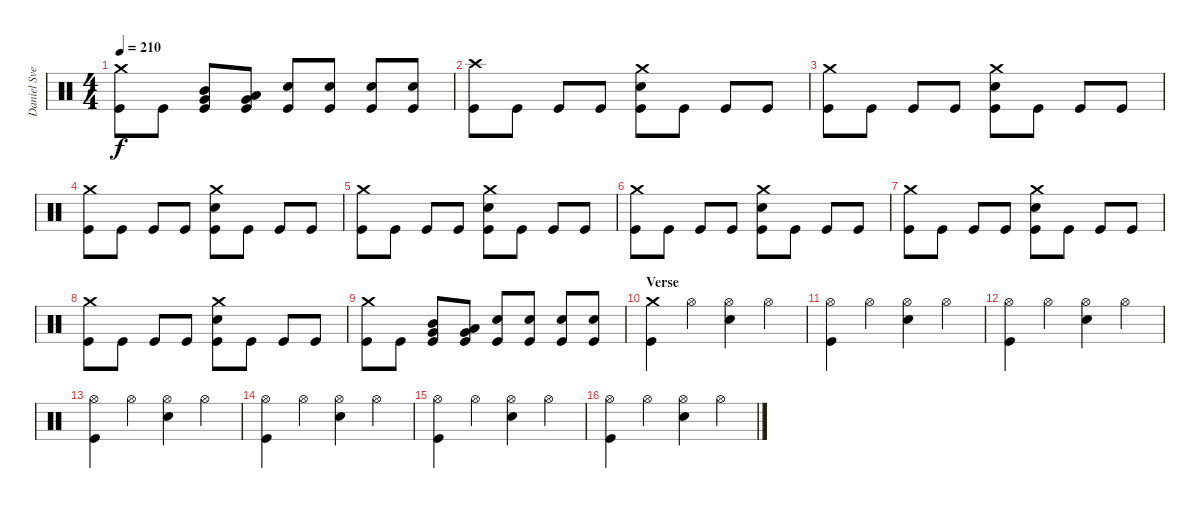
\track ("Daniel Svensson" "Daniel Sve") {instrument percussion}
\staff {score}
\articulation defaults
\ts (4 4)
\tempo 210
\clef neutral
\ks c
("Crash medium (hit)" "Kick (hit)").8{dy f} "Kick (hit)".8 ("Very Low Tom (hit)" "Mid Tom (hit)" "Kick (hit)").8 ("Very Low Tom (hit)" "Low Tom (hit)" "Kick (hit)").8 ("Electric Snare (hit)" "Kick (hit)").8 ("Electric Snare (hit)" "Kick (hit)").8 ("Electric Snare (hit)" "Kick (hit)").8 ("Electric Snare (hit)" "Kick (hit)").8 |
("Crash high (hit)" "Kick (hit)").8 "Kick (hit)".8 "Kick (hit)".8 "Kick (hit)".8 ("Crash medium (hit)" "Electric Snare (hit)" "Kick (hit)").8 "Kick (hit)".8 "Kick (hit)".8 "Kick (hit)".8 |
("Crash medium (hit)" "Kick (hit)").8 "Kick (hit)".8 "Kick (hit)".8 "Kick (hit)".8 ("Crash medium (hit)" "Electric Snare (hit)" "Kick (hit)").8 "Kick (hit)".8 "Kick (hit)".8 "Kick (hit)".8 |
("Crash medium (hit)" "Kick (hit)").8 "Kick (hit)".8 "Kick (hit)".8 "Kick (hit)".8 ("Crash medium (hit)" "Electric Snare (hit)" "Kick (hit)").8 "Kick (hit)".8 "Kick (hit)".8 "Kick (hit)".8 |
("Crash medium (hit)" "Kick (hit)").8 "Kick (hit)".8 "Kick (hit)".8 "Kick (hit)".8 ("Crash medium (hit)" "Electric Snare (hit)" "Kick (hit)").8 "Kick (hit)".8 "Kick (hit)".8 "Kick (hit)".8 |
("Crash medium (hit)" "Kick (hit)").8 "Kick (hit)".8 "Kick (hit)".8 "Kick (hit)".8 ("Crash medium (hit)" "Electric Snare (hit)" "Kick (hit)").8 "Kick (hit)".8 "Kick (hit)".8 "Kick (hit)".8 |
("Crash medium (hit)" "Kick (hit)").8 "Kick (hit)".8 "Kick (hit)".8 "Kick (hit)".8 ("Crash medium (hit)" "Electric Snare (hit)" "Kick (hit)").8 "Kick (hit)".8 "Kick (hit)".8 "Kick (hit)".8 |
("Crash medium (hit)" "Kick (hit)").8 "Kick (hit)".8 "Kick (hit)".8 "Kick (hit)".8 ("Crash medium (hit)" "Electric Snare (hit)" "Kick (hit)").8 "Kick (hit)".8 "Kick (hit)".8 "Kick (hit)".8 |
("Crash medium (hit)" "Kick (hit)").8 "Kick (hit)".8 ("Very Low Tom (hit)" "Mid Tom (hit)" "Kick (hit)").8 ("Very Low Tom (hit)" "Low Tom (hit)" "Kick (hit)").8 ("Electric Snare (hit)" "Kick (hit)").8 ("Electric Snare (hit)" "Kick (hit)").8 ("Electric Snare (hit)" "Kick (hit)").8 ("Electric Snare (hit)" "Kick (hit)").8 |
\section ("" "Verse")
("Crash medium (hit)" "Kick (hit)").4 "Hi-Hat (open)".4 ("Hi-Hat (open)" "Electric Snare (hit)").4 "Hi-Hat (open)".4 |
("Hi-Hat (open)" "Kick (hit)").4 "Hi-Hat (open)".4 ("Hi-Hat (open)" "Electric Snare (hit)").4 "Hi-Hat (open)".4 |
("Hi-Hat (open)" "Kick (hit)").4 "Hi-Hat (open)".4 ("Hi-Hat (open)" "Electric Snare (hit)").4 "Hi-Hat (open)".4 |
("Hi-Hat (open)" "Kick (hit)").4 "Hi-Hat (open)".4 ("Hi-Hat (open)" "Electric Snare (hit)").4 "Hi-Hat (open)".4 |
("Hi-Hat (open)" "Kick (hit)").4 "Hi-Hat (open)".4 ("Hi-Hat (open)" "Electric Snare (hit)").4 "Hi-Hat (open)".4 |
("Hi-Hat (open)" "Kick (hit)").4 "Hi-Hat (open)".4 ("Hi-Hat (open)" "Electric Snare (hit)").4 "Hi-Hat (open)".4 |
("Hi-Hat (open)" "Kick (hit)").4 "Hi-Hat (open)".4 ("Hi-Hat (open)" "Electric Snare (hit)").4 "Hi-Hat (open)".4
